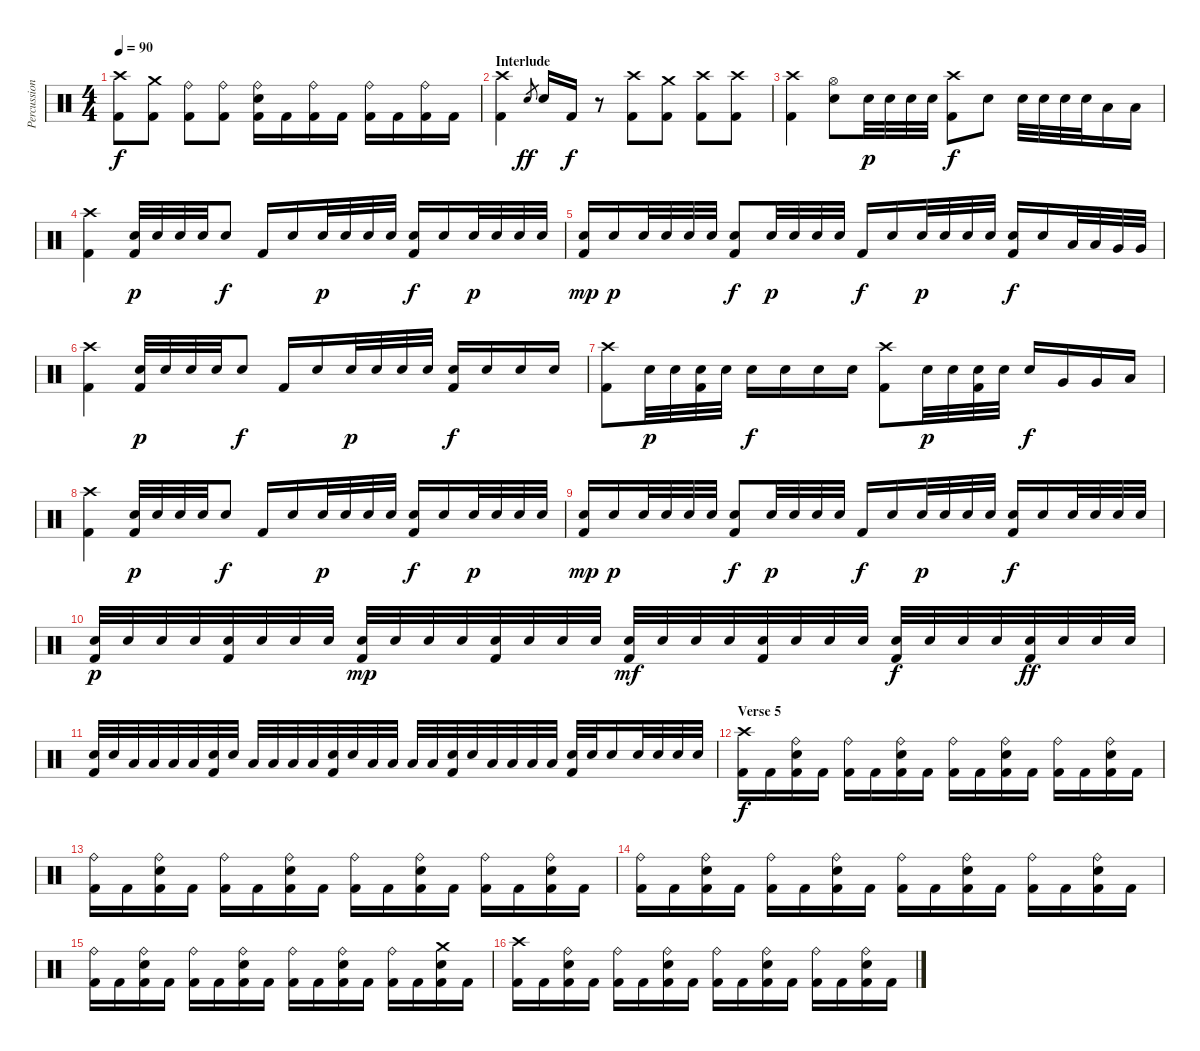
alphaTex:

\track ("Percussion" "Percussion") {instrument percussion}
\staff {score}
\articulation defaults
\ts (4 4)
\tempo 90
\clef neutral
\ks c
("Crash high (hit)" "Kick (hit) 2").8{dy f} ("Crash medium (hit)" "Kick (hit) 2").8 ("Ride (bell)" "Kick (hit) 2").8 ("Ride (bell)" "Kick (hit) 2").8 ("Ride (bell)" "Electric Snare (hit)" "Kick (hit) 2").16 "Kick (hit) 2".16 ("Ride (bell)" "Kick (hit) 2").16 "Kick (hit) 2".16 ("Ride (bell)" "Kick (hit) 2").16 "Kick (hit) 2".16 ("Ride (bell)" "Kick (hit) 2").16 "Kick (hit) 2".16 |
\section ("" "Interlude")
("Crash high (hit)" "Kick (hit) 2").4 "Electric Snare (hit)".8{gr dy ff} "Electric Snare (hit)".16 "Kick (hit) 2".16{dy f} r.8 ("Crash high (hit)" "Kick (hit) 2").8 ("Crash medium (hit)" "Kick (hit) 2").8 ("Crash high (hit)" "Kick (hit) 2").8 ("Crash high (hit)" "Kick (hit) 2").8 |
("Crash high (hit)" "Kick (hit) 2").4 ("Hi-Hat (open)" "Electric Snare (hit)").8 "Electric Snare (hit)".32{dy p} "Electric Snare (hit)".32 "Electric Snare (hit)".32 "Electric Snare (hit)".32 ("Crash high (hit)" "Kick (hit) 2").8{dy f} "Electric Snare (hit)".8 "Electric Snare (hit)".32 "Electric Snare (hit)".32 "Electric Snare (hit)".32 "Electric Snare (hit)".32 "Low Tom (hit)".16 "Low Tom (hit)".16 |
("Crash high (hit)" "Kick (hit) 2").4 ("Electric Snare (hit)" "Kick (hit) 2").32{dy p} "Electric Snare (hit)".32 "Electric Snare (hit)".32 "Electric Snare (hit)".32 "Electric Snare (hit)".8{dy f} "Kick (hit) 2".16 "Electric Snare (hit)".16 "Electric Snare (hit)".32{dy p} "Electric Snare (hit)".32 "Electric Snare (hit)".32 "Electric Snare (hit)".32 ("Electric Snare (hit)" "Kick (hit) 2").16{dy f} "Electric Snare (hit)".16 "Electric Snare (hit)".32{dy p} "Electric Snare (hit)".32 "Electric Snare (hit)".32 "Electric Snare (hit)".32 |
("Electric Snare (hit)" "Kick (hit) 2").16{dy mp} "Electric Snare (hit)".16{dy p} "Electric Snare (hit)".32 "Electric Snare (hit)".32 "Electric Snare (hit)".32 "Electric Snare (hit)".32 ("Electric Snare (hit)" "Kick (hit) 2").8{dy f} "Electric Snare (hit)".32{dy p} "Electric Snare (hit)".32 "Electric Snare (hit)".32 "Electric Snare (hit)".32 "Kick (hit) 2".16{dy f} "Electric Snare (hit)".16 "Electric Snare (hit)".32{dy p} "Electric Snare (hit)".32 "Electric Snare (hit)".32 "Electric Snare (hit)".32 ("Electric Snare (hit)" "Kick (hit) 2").16{dy f} "Electric Snare (hit)".16 "Low Tom (hit)".32 "Low Tom (hit)".32 "Very Low Tom (hit)".32 "Very Low Tom (hit)".32 |
("Crash high (hit)" "Kick (hit) 2").4 ("Electric Snare (hit)" "Kick (hit) 2").32{dy p} "Electric Snare (hit)".32 "Electric Snare (hit)".32 "Electric Snare (hit)".32 "Electric Snare (hit)".8{dy f} "Kick (hit) 2".16 "Electric Snare (hit)".16 "Electric Snare (hit)".32{dy p} "Electric Snare (hit)".32 "Electric Snare (hit)".32 "Electric Snare (hit)".32 ("Electric Snare (hit)" "Kick (hit) 2").16{dy f} "Electric Snare (hit)".16 "Electric Snare (hit)".16 "Electric Snare (hit)".16 |
("Crash high (hit)" "Kick (hit) 2").8 "Electric Snare (hit)".32{dy p} "Electric Snare (hit)".32 ("Electric Snare (hit)" "Kick (hit) 2").32 "Electric Snare (hit)".32 "Electric Snare (hit)".16{dy f} "Electric Snare (hit)".16 "Electric Snare (hit)".16 "Electric Snare (hit)".16 ("Crash high (hit)" "Kick (hit) 2").8 "Electric Snare (hit)".32{dy p} "Electric Snare (hit)".32 ("Electric Snare (hit)" "Kick (hit) 2").32 "Electric Snare (hit)".32 "Electric Snare (hit)".16{dy f} "Very Low Tom (hit)".16 "Very Low Tom (hit)".16 "Low Floor Tom (hit)".16 |
("Crash high (hit)" "Kick (hit) 2").4 ("Electric Snare (hit)" "Kick (hit) 2").32{dy p} "Electric Snare (hit)".32 "Electric Snare (hit)".32 "Electric Snare (hit)".32 "Electric Snare (hit)".8{dy f} "Kick (hit) 2".16 "Electric Snare (hit)".16 "Electric Snare (hit)".32{dy p} "Electric Snare (hit)".32 "Electric Snare (hit)".32 "Electric Snare (hit)".32 ("Electric Snare (hit)" "Kick (hit) 2").16{dy f} "Electric Snare (hit)".16 "Electric Snare (hit)".32{dy p} "Electric Snare (hit)".32 "Electric Snare (hit)".32 "Electric Snare (hit)".32 |
("Electric Snare (hit)" "Kick (hit) 2").16{dy mp} "Electric Snare (hit)".16{dy p} "Electric Snare (hit)".32 "Electric Snare (hit)".32 "Electric Snare (hit)".32 "Electric Snare (hit)".32 ("Electric Snare (hit)" "Kick (hit) 2").8{dy f} "Electric Snare (hit)".32{dy p} "Electric Snare (hit)".32 "Electric Snare (hit)".32 "Electric Snare (hit)".32 "Kick (hit) 2".16{dy f} "Electric Snare (hit)".16 "Electric Snare (hit)".32{dy p} "Electric Snare (hit)".32 "Electric Snare (hit)".32 "Electric Snare (hit)".32 ("Electric Snare (hit)" "Kick (hit) 2").16{dy f} "Electric Snare (hit)".16 "Electric Snare (hit)".32 "Electric Snare (hit)".32 "Electric Snare (hit)".32 "Electric Snare (hit)".32 |
("Electric Snare (hit)" "Kick (hit) 2").32{dy p} "Electric Snare (hit)".32 "Electric Snare (hit)".32 "Electric Snare (hit)".32 ("Electric Snare (hit)" "Kick (hit) 2").32 "Electric Snare (hit)".32 "Electric Snare (hit)".32 "Electric Snare (hit)".32 ("Electric Snare (hit)" "Kick (hit) 2").32{dy mp} "Electric Snare (hit)".32 "Electric Snare (hit)".32 "Electric Snare (hit)".32 ("Electric Snare (hit)" "Kick (hit) 2").32 "Electric Snare (hit)".32 "Electric Snare (hit)".32 "Electric Snare (hit)".32 ("Electric Snare (hit)" "Kick (hit) 2").32{dy mf} "Electric Snare (hit)".32 "Electric Snare (hit)".32 "Electric Snare (hit)".32 ("Electric Snare (hit)" "Kick (hit) 2").32 "Electric Snare (hit)".32 "Electric Snare (hit)".32 "Electric Snare (hit)".32 ("Electric Snare (hit)" "Kick (hit) 2").32{dy f} "Electric Snare (hit)".32 "Electric Snare (hit)".32 "Electric Snare (hit)".32 ("Electric Snare (hit)" "Kick (hit) 2").32{dy ff} "Electric Snare (hit)".32 "Electric Snare (hit)".32 "Electric Snare (hit)".32 |
("Electric Snare (hit)" "Kick (hit) 2").32 "Electric Snare (hit)".32 "Low Tom (hit)".32 "Low Tom (hit)".32 "Low Tom (hit)".32 "Low Tom (hit)".32 ("Electric Snare (hit)" "Kick (hit) 2").32 "Electric Snare (hit)".32 "Low Tom (hit)".32 "Low Tom (hit)".32 "Low Tom (hit)".32 "Low Tom (hit)".32 ("Electric Snare (hit)" "Kick (hit) 2").32 "Electric Snare (hit)".32 "Low Tom (hit)".32 "Low Tom (hit)".32 "Low Tom (hit)".32 "Low Tom (hit)".32 ("Electric Snare (hit)" "Kick (hit) 2").32 "Electric Snare (hit)".32 "Low Tom (hit)".32 "Low Tom (hit)".32 "Low Tom (hit)".32 "Low Tom (hit)".32 ("Electric Snare (hit)" "Kick (hit) 2").32 "Electric Snare (hit)".32 "Electric Snare (hit)".16 "Electric Snare (hit)".32 "Electric Snare (hit)".32 "Electric Snare (hit)".32 "Electric Snare (hit)".32 |
\section ("" "Verse 5")
("Crash high (hit)" "Kick (hit) 2").16{dy f} "Kick (hit) 2".16 ("Ride (bell)" "Electric Snare (hit)" "Kick (hit) 2").16 "Kick (hit) 2".16 ("Ride (bell)" "Kick (hit) 2").16 "Kick (hit) 2".16 ("Ride (bell)" "Electric Snare (hit)" "Kick (hit) 2").16 "Kick (hit) 2".16 ("Ride (bell)" "Kick (hit) 2").16 "Kick (hit) 2".16 ("Ride (bell)" "Electric Snare (hit)" "Kick (hit) 2").16 "Kick (hit) 2".16 ("Ride (bell)" "Kick (hit) 2").16 "Kick (hit) 2".16 ("Ride (bell)" "Electric Snare (hit)" "Kick (hit) 2").16 "Kick (hit) 2".16 |
("Ride (bell)" "Kick (hit) 2").16 "Kick (hit) 2".16 ("Ride (bell)" "Electric Snare (hit)" "Kick (hit) 2").16 "Kick (hit) 2".16 ("Ride (bell)" "Kick (hit) 2").16 "Kick (hit) 2".16 ("Ride (bell)" "Electric Snare (hit)" "Kick (hit) 2").16 "Kick (hit) 2".16 ("Ride (bell)" "Kick (hit) 2").16 "Kick (hit) 2".16 ("Ride (bell)" "Electric Snare (hit)" "Kick (hit) 2").16 "Kick (hit) 2".16 ("Ride (bell)" "Kick (hit) 2").16 "Kick (hit) 2".16 ("Ride (bell)" "Electric Snare (hit)" "Kick (hit) 2").16 "Kick (hit) 2".16 |
("Ride (bell)" "Kick (hit) 2").16 "Kick (hit) 2".16 ("Ride (bell)" "Electric Snare (hit)" "Kick (hit) 2").16 "Kick (hit) 2".16 ("Ride (bell)" "Kick (hit) 2").16 "Kick (hit) 2".16 ("Ride (bell)" "Electric Snare (hit)" "Kick (hit) 2").16 "Kick (hit) 2".16 ("Ride (bell)" "Kick (hit) 2").16 "Kick (hit) 2".16 ("Ride (bell)" "Electric Snare (hit)" "Kick (hit) 2").16 "Kick (hit) 2".16 ("Ride (bell)" "Kick (hit) 2").16 "Kick (hit) 2".16 ("Ride (bell)" "Electric Snare (hit)" "Kick (hit) 2").16 "Kick (hit) 2".16 |
("Ride (bell)" "Kick (hit) 2").16 "Kick (hit) 2".16 ("Ride (bell)" "Electric Snare (hit)" "Kick (hit) 2").16 "Kick (hit) 2".16 ("Ride (bell)" "Kick (hit) 2").16 "Kick (hit) 2".16 ("Ride (bell)" "Electric Snare (hit)" "Kick (hit) 2").16 "Kick (hit) 2".16 ("Ride (bell)" "Kick (hit) 2").16 "Kick (hit) 2".16 ("Ride (bell)" "Electric Snare (hit)" "Kick (hit) 2").16 "Kick (hit) 2".16 ("Ride (bell)" "Kick (hit) 2").16 "Kick (hit) 2".16 ("Crash medium (hit)" "Electric Snare (hit)" "Kick (hit) 2").16 "Kick (hit) 2".16 |
("Crash high (hit)" "Kick (hit) 2").16 "Kick (hit) 2".16 ("Ride (bell)" "Electric Snare (hit)" "Kick (hit) 2").16 "Kick (hit) 2".16 ("Ride (bell)" "Kick (hit) 2").16 "Kick (hit) 2".16 ("Ride (bell)" "Electric Snare (hit)" "Kick (hit) 2").16 "Kick (hit) 2".16 ("Ride (bell)" "Kick (hit) 2").16 "Kick (hit) 2".16 ("Ride (bell)" "Electric Snare (hit)" "Kick (hit) 2").16 "Kick (hit) 2".16 ("Ride (bell)" "Kick (hit) 2").16 "Kick (hit) 2".16 ("Ride (bell)" "Electric Snare (hit)" "Kick (hit) 2").16 "Kick (hit) 2".16
